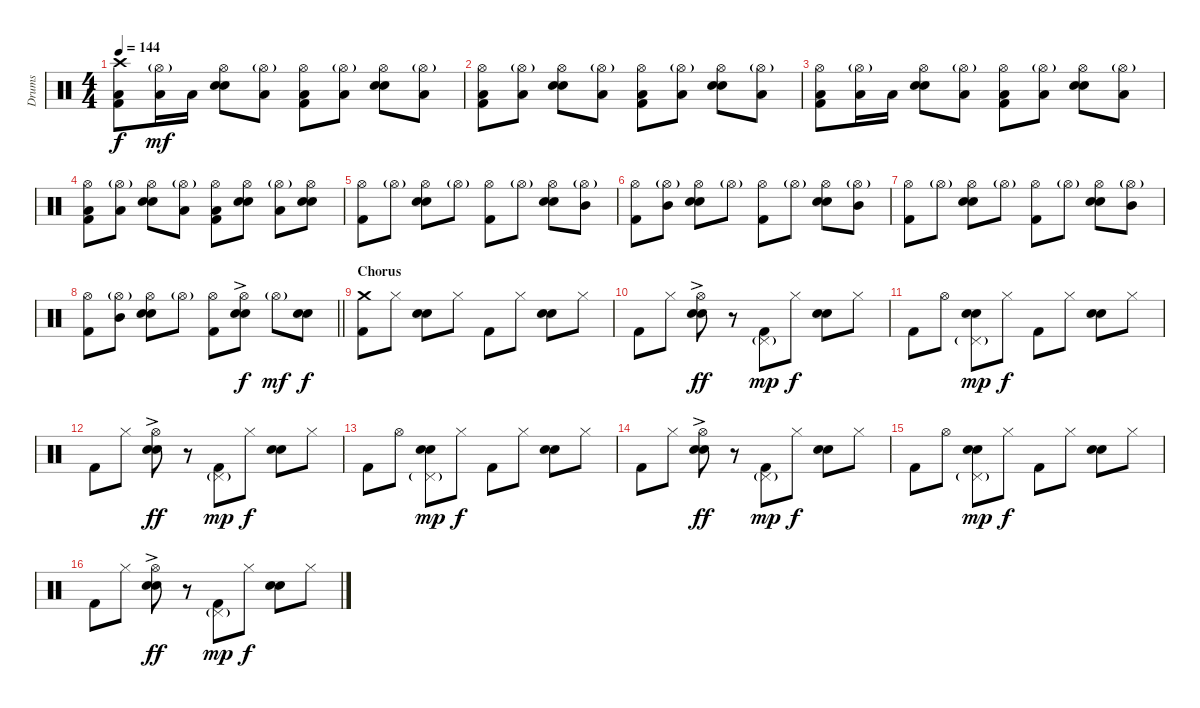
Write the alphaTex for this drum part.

\track ("Drums" "Drums") {instrument percussion}
\staff {score}
\articulation defaults
\ts (4 4)
\tempo 144
\clef neutral
\ks c
("Crash high (hit)" "Low Tom (hit)" "Kick (hit) 2").8{dy f} ("Hi-Hat (open)"{g} "Low Tom (hit)").16{dy mf} "Low Tom (hit)".16 ("Hi-Hat (open)" "Electric Snare (hit)" "Snare (hit) 2").8 ("Hi-Hat (open)"{g} "Low Tom (hit)").8 ("Hi-Hat (open)" "Low Tom (hit)" "Kick (hit) 2").8 ("Hi-Hat (open)"{g} "Low Tom (hit)").8 ("Hi-Hat (open)" "Electric Snare (hit)" "Snare (hit) 2").8 ("Hi-Hat (open)"{g} "Low Tom (hit)").8 |
("Hi-Hat (open)" "Low Tom (hit)" "Kick (hit) 2").8 ("Hi-Hat (open)"{g} "Low Tom (hit)").8 ("Hi-Hat (open)" "Electric Snare (hit)" "Snare (hit) 2").8 ("Hi-Hat (open)"{g} "Low Tom (hit)").8 ("Hi-Hat (open)" "Low Tom (hit)" "Kick (hit) 2").8 ("Hi-Hat (open)"{g} "Low Tom (hit)").8 ("Hi-Hat (open)" "Electric Snare (hit)" "Snare (hit) 2").8 ("Hi-Hat (open)"{g} "Low Tom (hit)").8 |
("Hi-Hat (open)" "Low Tom (hit)" "Kick (hit) 2").8 ("Hi-Hat (open)"{g} "Low Tom (hit)").16 "Low Tom (hit)".16 ("Hi-Hat (open)" "Electric Snare (hit)" "Snare (hit) 2").8 ("Hi-Hat (open)"{g} "Low Tom (hit)").8 ("Hi-Hat (open)" "Low Tom (hit)" "Kick (hit) 2").8 ("Hi-Hat (open)"{g} "Low Tom (hit)").8 ("Hi-Hat (open)" "Electric Snare (hit)" "Snare (hit) 2").8 ("Hi-Hat (open)"{g} "Low Tom (hit)").8 |
("Hi-Hat (open)" "Low Tom (hit)" "Kick (hit) 2").8 ("Hi-Hat (open)"{g} "Low Tom (hit)").8 ("Hi-Hat (open)" "Electric Snare (hit)" "Snare (hit) 2").8 ("Hi-Hat (open)"{g} "Low Tom (hit)").8 ("Hi-Hat (open)" "Low Tom (hit)" "Kick (hit) 2").8 ("Hi-Hat (open)" "Electric Snare (hit)" "Snare (hit) 2").8 ("Hi-Hat (open)"{g} "Low Tom (hit)").8 ("Hi-Hat (open)" "Electric Snare (hit)" "Snare (hit) 2").8 |
("Hi-Hat (open)" "Kick (hit) 2").8 "Hi-Hat (open)"{g}.8 ("Hi-Hat (open)" "Electric Snare (hit)" "Snare (hit) 2").8 "Hi-Hat (open)"{g}.8 ("Hi-Hat (open)" "Kick (hit) 2").8 "Hi-Hat (open)"{g}.8 ("Hi-Hat (open)" "Electric Snare (hit)" "Snare (hit) 2").8 ("Hi-Hat (open)"{g} "Mid Tom (hit)").8 |
("Hi-Hat (open)" "Kick (hit) 2").8 ("Hi-Hat (open)"{g} "Mid Tom (hit)").8 ("Hi-Hat (open)" "Electric Snare (hit)" "Snare (hit) 2").8 "Hi-Hat (open)"{g}.8 ("Hi-Hat (open)" "Kick (hit) 2").8 "Hi-Hat (open)"{g}.8 ("Hi-Hat (open)" "Electric Snare (hit)" "Snare (hit) 2").8 ("Hi-Hat (open)"{g} "Mid Tom (hit)").8 |
("Hi-Hat (open)" "Kick (hit) 2").8 "Hi-Hat (open)"{g}.8 ("Hi-Hat (open)" "Electric Snare (hit)" "Snare (hit) 2").8 "Hi-Hat (open)"{g}.8 ("Hi-Hat (open)" "Kick (hit) 2").8 "Hi-Hat (open)"{g}.8 ("Hi-Hat (open)" "Electric Snare (hit)" "Snare (hit) 2").8 ("Hi-Hat (open)"{g} "Mid Tom (hit)").8 |
\barLineRight lightlight
("Hi-Hat (open)" "Kick (hit) 2").8 ("Hi-Hat (open)"{g} "Mid Tom (hit)").8 ("Hi-Hat (open)" "Electric Snare (hit)" "Snare (hit) 2").8 "Hi-Hat (open)"{g}.8 ("Hi-Hat (open)" "Kick (hit) 2").8 ("Hi-Hat (open)"{ac} "Electric Snare (hit)" "Snare (hit) 2").8{dy f} "Hi-Hat (open)"{g}.8{dy mf} ("Electric Snare (hit)" "Snare (hit) 2").8{dy f} |
\section ("" "Chorus")
("Crash medium (hit)" "Kick (hit) 2").8 "Hi-Hat (closed)".8 ("Electric Snare (hit)" "Snare (hit) 2").8 "Hi-Hat (closed)".8 "Kick (hit) 2".8 "Hi-Hat (closed)".8 ("Electric Snare (hit)" "Snare (hit) 2").8 "Hi-Hat (closed)".8 |
"Kick (hit) 2".8 "Hi-Hat (closed)".8 ("Hi-Hat (open)"{ac} "Electric Snare (hit)" "Snare (hit) 2").8{dy ff} r.8 ("Pedal Hi-Hat (hit)"{g} "Kick (hit) 2").8{dy mp} "Hi-Hat (closed)".8{dy f} ("Electric Snare (hit)" "Snare (hit) 2").8 "Hi-Hat (closed)".8 |
"Kick (hit) 2".8 "Hi-Hat (open)".8 ("Pedal Hi-Hat (hit)"{g} "Electric Snare (hit)" "Snare (hit) 2").8{dy mp} "Hi-Hat (closed)".8{dy f} "Kick (hit) 2".8 "Hi-Hat (closed)".8 ("Electric Snare (hit)" "Snare (hit) 2").8 "Hi-Hat (closed)".8 |
"Kick (hit) 2".8 "Hi-Hat (closed)".8 ("Hi-Hat (open)"{ac} "Electric Snare (hit)" "Snare (hit) 2").8{dy ff} r.8 ("Pedal Hi-Hat (hit)"{g} "Kick (hit) 2").8{dy mp} "Hi-Hat (closed)".8{dy f} ("Electric Snare (hit)" "Snare (hit) 2").8 "Hi-Hat (closed)".8 |
"Kick (hit) 2".8 "Hi-Hat (open)".8 ("Pedal Hi-Hat (hit)"{g} "Electric Snare (hit)" "Snare (hit) 2").8{dy mp} "Hi-Hat (closed)".8{dy f} "Kick (hit) 2".8 "Hi-Hat (closed)".8 ("Electric Snare (hit)" "Snare (hit) 2").8 "Hi-Hat (closed)".8 |
"Kick (hit) 2".8 "Hi-Hat (closed)".8 ("Hi-Hat (open)"{ac} "Electric Snare (hit)" "Snare (hit) 2").8{dy ff} r.8 ("Pedal Hi-Hat (hit)"{g} "Kick (hit) 2").8{dy mp} "Hi-Hat (closed)".8{dy f} ("Electric Snare (hit)" "Snare (hit) 2").8 "Hi-Hat (closed)".8 |
"Kick (hit) 2".8 "Hi-Hat (open)".8 ("Pedal Hi-Hat (hit)"{g} "Electric Snare (hit)" "Snare (hit) 2").8{dy mp} "Hi-Hat (closed)".8{dy f} "Kick (hit) 2".8 "Hi-Hat (closed)".8 ("Electric Snare (hit)" "Snare (hit) 2").8 "Hi-Hat (closed)".8 |
"Kick (hit) 2".8 "Hi-Hat (closed)".8 ("Hi-Hat (open)"{ac} "Electric Snare (hit)" "Snare (hit) 2").8{dy ff} r.8 ("Pedal Hi-Hat (hit)"{g} "Kick (hit) 2").8{dy mp} "Hi-Hat (closed)".8{dy f} ("Electric Snare (hit)" "Snare (hit) 2").8 "Hi-Hat (closed)".8
